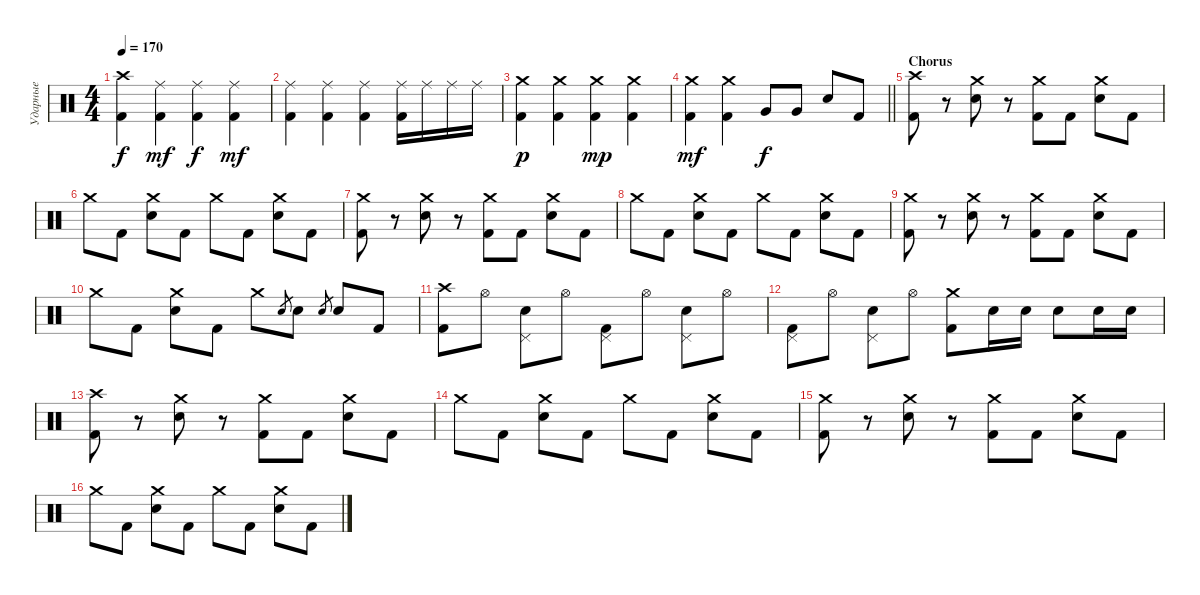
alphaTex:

\track ("Ударные" "Ударные") {instrument percussion}
\staff {score}
\articulation defaults
\ts (4 4)
\tempo 170
\clef neutral
\ks c
("Crash high (hit)" "Kick (hit) 2").4{dy f} ("Ride (middle)" "Kick (hit) 2").4{dy mf} ("Ride (middle)" "Kick (hit) 2").4{dy f} ("Ride (middle)" "Kick (hit) 2").4{dy mf} |
("Ride (middle)" "Kick (hit) 2").4 ("Ride (middle)" "Kick (hit) 2").4 ("Ride (middle)" "Kick (hit) 2").4 ("Ride (middle)" "Kick (hit) 2").16 "Ride (middle)".16 "Ride (middle)".16 "Ride (middle)".16 |
("Crash medium (hit)" "Kick (hit) 2").4{dy p} ("Crash medium (hit)" "Kick (hit) 2").4 ("Crash medium (hit)" "Kick (hit) 2").4{dy mp} ("Crash medium (hit)" "Kick (hit) 2").4 |
\barLineRight lightlight
("Crash medium (hit)" "Kick (hit) 2").4{dy mf} ("Crash medium (hit)" "Kick (hit) 2").4 "Very Low Tom (hit)".8{dy f} "Very Low Tom (hit)".8 "Electric Snare (hit)".8 "Kick (hit) 2".8 |
\section ("" "Chorus")
("Crash high (hit)" "Kick (hit) 2").8 r.8 ("Crash medium (hit)" "Electric Snare (hit)").8 r.8 ("Crash medium (hit)" "Kick (hit) 2").8 "Kick (hit) 2".8 ("Crash medium (hit)" "Electric Snare (hit)").8 "Kick (hit) 2".8 |
"Crash medium (hit)".8 "Kick (hit) 2".8 ("Crash medium (hit)" "Electric Snare (hit)").8 "Kick (hit) 2".8 "Crash medium (hit)".8 "Kick (hit) 2".8 ("Crash medium (hit)" "Electric Snare (hit)").8 "Kick (hit) 2".8 |
("Crash medium (hit)" "Kick (hit) 2").8 r.8 ("Crash medium (hit)" "Electric Snare (hit)").8 r.8 ("Crash medium (hit)" "Kick (hit) 2").8 "Kick (hit) 2".8 ("Crash medium (hit)" "Electric Snare (hit)").8 "Kick (hit) 2".8 |
"Crash medium (hit)".8 "Kick (hit) 2".8 ("Crash medium (hit)" "Electric Snare (hit)").8 "Kick (hit) 2".8 "Crash medium (hit)".8 "Kick (hit) 2".8 ("Crash medium (hit)" "Electric Snare (hit)").8 "Kick (hit) 2".8 |
("Crash medium (hit)" "Kick (hit) 2").8 r.8 ("Crash medium (hit)" "Electric Snare (hit)").8 r.8 ("Crash medium (hit)" "Kick (hit) 2").8 "Kick (hit) 2".8 ("Crash medium (hit)" "Electric Snare (hit)").8 "Kick (hit) 2".8 |
"Crash medium (hit)".8 "Kick (hit) 2".8 ("Crash medium (hit)" "Electric Snare (hit)").8 "Kick (hit) 2".8 "Crash medium (hit)".8 "Electric Snare (hit)".8{gr} "Electric Snare (hit)".8 "Electric Snare (hit)".8{gr} "Electric Snare (hit)".8 "Kick (hit) 2".8 |
("Crash high (hit)" "Kick (hit) 2").8 "Hi-Hat (open)".8 ("Pedal Hi-Hat (hit)" "Electric Snare (hit)").8 "Hi-Hat (open)".8 ("Pedal Hi-Hat (hit)" "Kick (hit) 2").8 "Hi-Hat (open)".8 ("Pedal Hi-Hat (hit)" "Electric Snare (hit)").8 "Hi-Hat (open)".8 |
("Pedal Hi-Hat (hit)" "Kick (hit) 2").8 "Hi-Hat (open)".8 ("Pedal Hi-Hat (hit)" "Electric Snare (hit)").8 "Hi-Hat (open)".8 ("Crash medium (hit)" "Kick (hit) 2").8 "Electric Snare (hit)".16 "Electric Snare (hit)".16 "Electric Snare (hit)".8 "Electric Snare (hit)".16 "Electric Snare (hit)".16 |
("Crash high (hit)" "Kick (hit) 2").8 r.8 ("Crash medium (hit)" "Electric Snare (hit)").8 r.8 ("Crash medium (hit)" "Kick (hit) 2").8 "Kick (hit) 2".8 ("Crash medium (hit)" "Electric Snare (hit)").8 "Kick (hit) 2".8 |
"Crash medium (hit)".8 "Kick (hit) 2".8 ("Crash medium (hit)" "Electric Snare (hit)").8 "Kick (hit) 2".8 "Crash medium (hit)".8 "Kick (hit) 2".8 ("Crash medium (hit)" "Electric Snare (hit)").8 "Kick (hit) 2".8 |
("Crash medium (hit)" "Kick (hit) 2").8 r.8 ("Crash medium (hit)" "Electric Snare (hit)").8 r.8 ("Crash medium (hit)" "Kick (hit) 2").8 "Kick (hit) 2".8 ("Crash medium (hit)" "Electric Snare (hit)").8 "Kick (hit) 2".8 |
"Crash medium (hit)".8 "Kick (hit) 2".8 ("Crash medium (hit)" "Electric Snare (hit)").8 "Kick (hit) 2".8 "Crash medium (hit)".8 "Kick (hit) 2".8 ("Crash medium (hit)" "Electric Snare (hit)").8 "Kick (hit) 2".8
